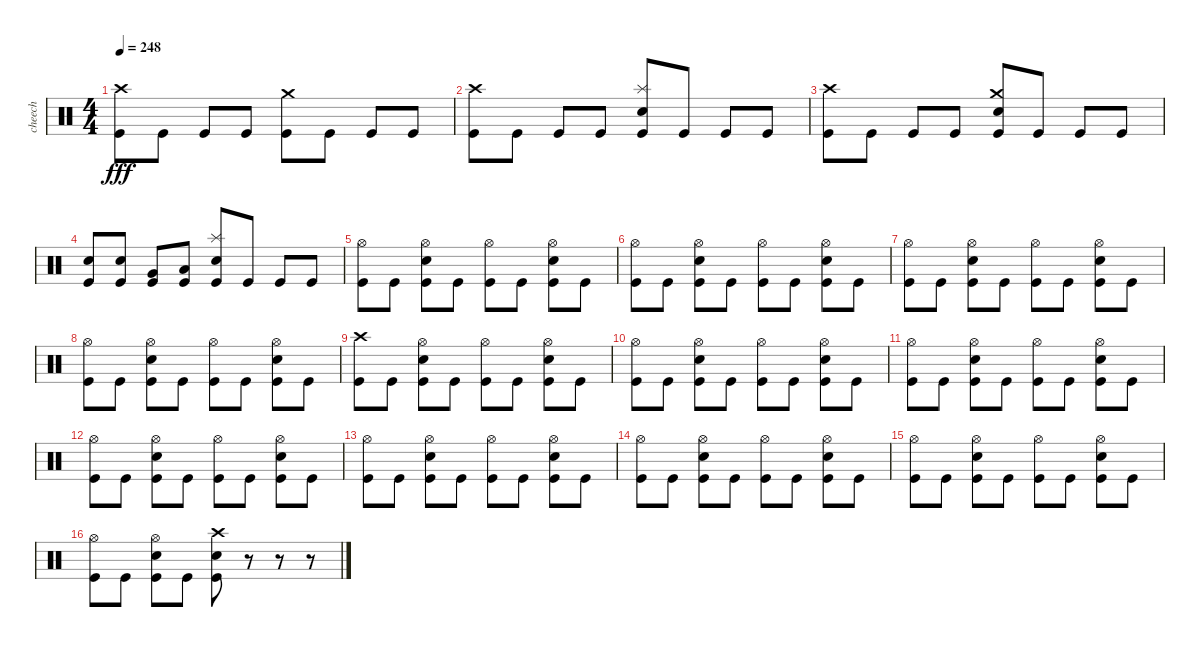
\track ("cheech" "cheech") {instrument percussion}
\staff {score}
\articulation defaults
\ts (4 4)
\tempo 248
\clef neutral
\ks c
("Crash high (hit)" "Kick (hit)").8{dy fff} "Kick (hit)".8 "Kick (hit)".8 "Kick (hit)".8 ("Crash medium (hit)" "Kick (hit)").8 "Kick (hit)".8 "Kick (hit)".8 "Kick (hit)".8 |
("Crash high (hit)" "Kick (hit)").8 "Kick (hit)".8 "Kick (hit)".8 "Kick (hit)".8 ("Splash (hit)" "Electric Snare (hit)" "Kick (hit)").8 "Kick (hit)".8 "Kick (hit)".8 "Kick (hit)".8 |
("Crash high (hit)" "Kick (hit)").8 "Kick (hit)".8 "Kick (hit)".8 "Kick (hit)".8 ("Crash medium (hit)" "Electric Snare (hit)" "Kick (hit)").8 "Kick (hit)".8 "Kick (hit)".8 "Kick (hit)".8 |
("Electric Snare (hit)" "Kick (hit)").8 ("Electric Snare (hit)" "Kick (hit)").8 ("Very Low Tom (hit)" "Kick (hit)").8 ("Low Floor Tom (hit)" "Kick (hit)").8 ("Splash (hit)" "Electric Snare (hit)" "Kick (hit)").8 "Kick (hit)".8 "Kick (hit)".8 "Kick (hit)".8 |
("Hi-Hat (open)" "Kick (hit)").8 "Kick (hit)".8 ("Hi-Hat (open)" "Electric Snare (hit)" "Kick (hit)").8 "Kick (hit)".8 ("Hi-Hat (open)" "Kick (hit)").8 "Kick (hit)".8 ("Hi-Hat (open)" "Electric Snare (hit)" "Kick (hit)").8 "Kick (hit)".8 |
("Hi-Hat (open)" "Kick (hit)").8 "Kick (hit)".8 ("Hi-Hat (open)" "Electric Snare (hit)" "Kick (hit)").8 "Kick (hit)".8 ("Hi-Hat (open)" "Kick (hit)").8 "Kick (hit)".8 ("Hi-Hat (open)" "Electric Snare (hit)" "Kick (hit)").8 "Kick (hit)".8 |
("Hi-Hat (open)" "Kick (hit)").8 "Kick (hit)".8 ("Hi-Hat (open)" "Electric Snare (hit)" "Kick (hit)").8 "Kick (hit)".8 ("Hi-Hat (open)" "Kick (hit)").8 "Kick (hit)".8 ("Hi-Hat (open)" "Electric Snare (hit)" "Kick (hit)").8 "Kick (hit)".8 |
("Hi-Hat (open)" "Kick (hit)").8 "Kick (hit)".8 ("Hi-Hat (open)" "Electric Snare (hit)" "Kick (hit)").8 "Kick (hit)".8 ("Hi-Hat (open)" "Kick (hit)").8 "Kick (hit)".8 ("Hi-Hat (open)" "Electric Snare (hit)" "Kick (hit)").8 "Kick (hit)".8 |
("Crash high (hit)" "Kick (hit)").8 "Kick (hit)".8 ("Hi-Hat (open)" "Electric Snare (hit)" "Kick (hit)").8 "Kick (hit)".8 ("Hi-Hat (open)" "Kick (hit)").8 "Kick (hit)".8 ("Hi-Hat (open)" "Electric Snare (hit)" "Kick (hit)").8 "Kick (hit)".8 |
("Hi-Hat (open)" "Kick (hit)").8 "Kick (hit)".8 ("Hi-Hat (open)" "Electric Snare (hit)" "Kick (hit)").8 "Kick (hit)".8 ("Hi-Hat (open)" "Kick (hit)").8 "Kick (hit)".8 ("Hi-Hat (open)" "Electric Snare (hit)" "Kick (hit)").8 "Kick (hit)".8 |
("Hi-Hat (open)" "Kick (hit)").8 "Kick (hit)".8 ("Hi-Hat (open)" "Electric Snare (hit)" "Kick (hit)").8 "Kick (hit)".8 ("Hi-Hat (open)" "Kick (hit)").8 "Kick (hit)".8 ("Hi-Hat (open)" "Electric Snare (hit)" "Kick (hit)").8 "Kick (hit)".8 |
("Hi-Hat (open)" "Kick (hit)").8 "Kick (hit)".8 ("Hi-Hat (open)" "Electric Snare (hit)" "Kick (hit)").8 "Kick (hit)".8 ("Hi-Hat (open)" "Kick (hit)").8 "Kick (hit)".8 ("Hi-Hat (open)" "Electric Snare (hit)" "Kick (hit)").8 "Kick (hit)".8 |
("Hi-Hat (open)" "Kick (hit)").8 "Kick (hit)".8 ("Hi-Hat (open)" "Electric Snare (hit)" "Kick (hit)").8 "Kick (hit)".8 ("Hi-Hat (open)" "Kick (hit)").8 "Kick (hit)".8 ("Hi-Hat (open)" "Electric Snare (hit)" "Kick (hit)").8 "Kick (hit)".8 |
("Hi-Hat (open)" "Kick (hit)").8 "Kick (hit)".8 ("Hi-Hat (open)" "Electric Snare (hit)" "Kick (hit)").8 "Kick (hit)".8 ("Hi-Hat (open)" "Kick (hit)").8 "Kick (hit)".8 ("Hi-Hat (open)" "Electric Snare (hit)" "Kick (hit)").8 "Kick (hit)".8 |
("Hi-Hat (open)" "Kick (hit)").8 "Kick (hit)".8 ("Hi-Hat (open)" "Electric Snare (hit)" "Kick (hit)").8 "Kick (hit)".8 ("Hi-Hat (open)" "Kick (hit)").8 "Kick (hit)".8 ("Hi-Hat (open)" "Electric Snare (hit)" "Kick (hit)").8 "Kick (hit)".8 |
("Hi-Hat (open)" "Kick (hit)").8 "Kick (hit)".8 ("Hi-Hat (open)" "Electric Snare (hit)" "Kick (hit)").8 "Kick (hit)".8 ("Crash high (hit)" "Electric Snare (hit)" "Kick (hit)").8 r.8 r.8 r.8
